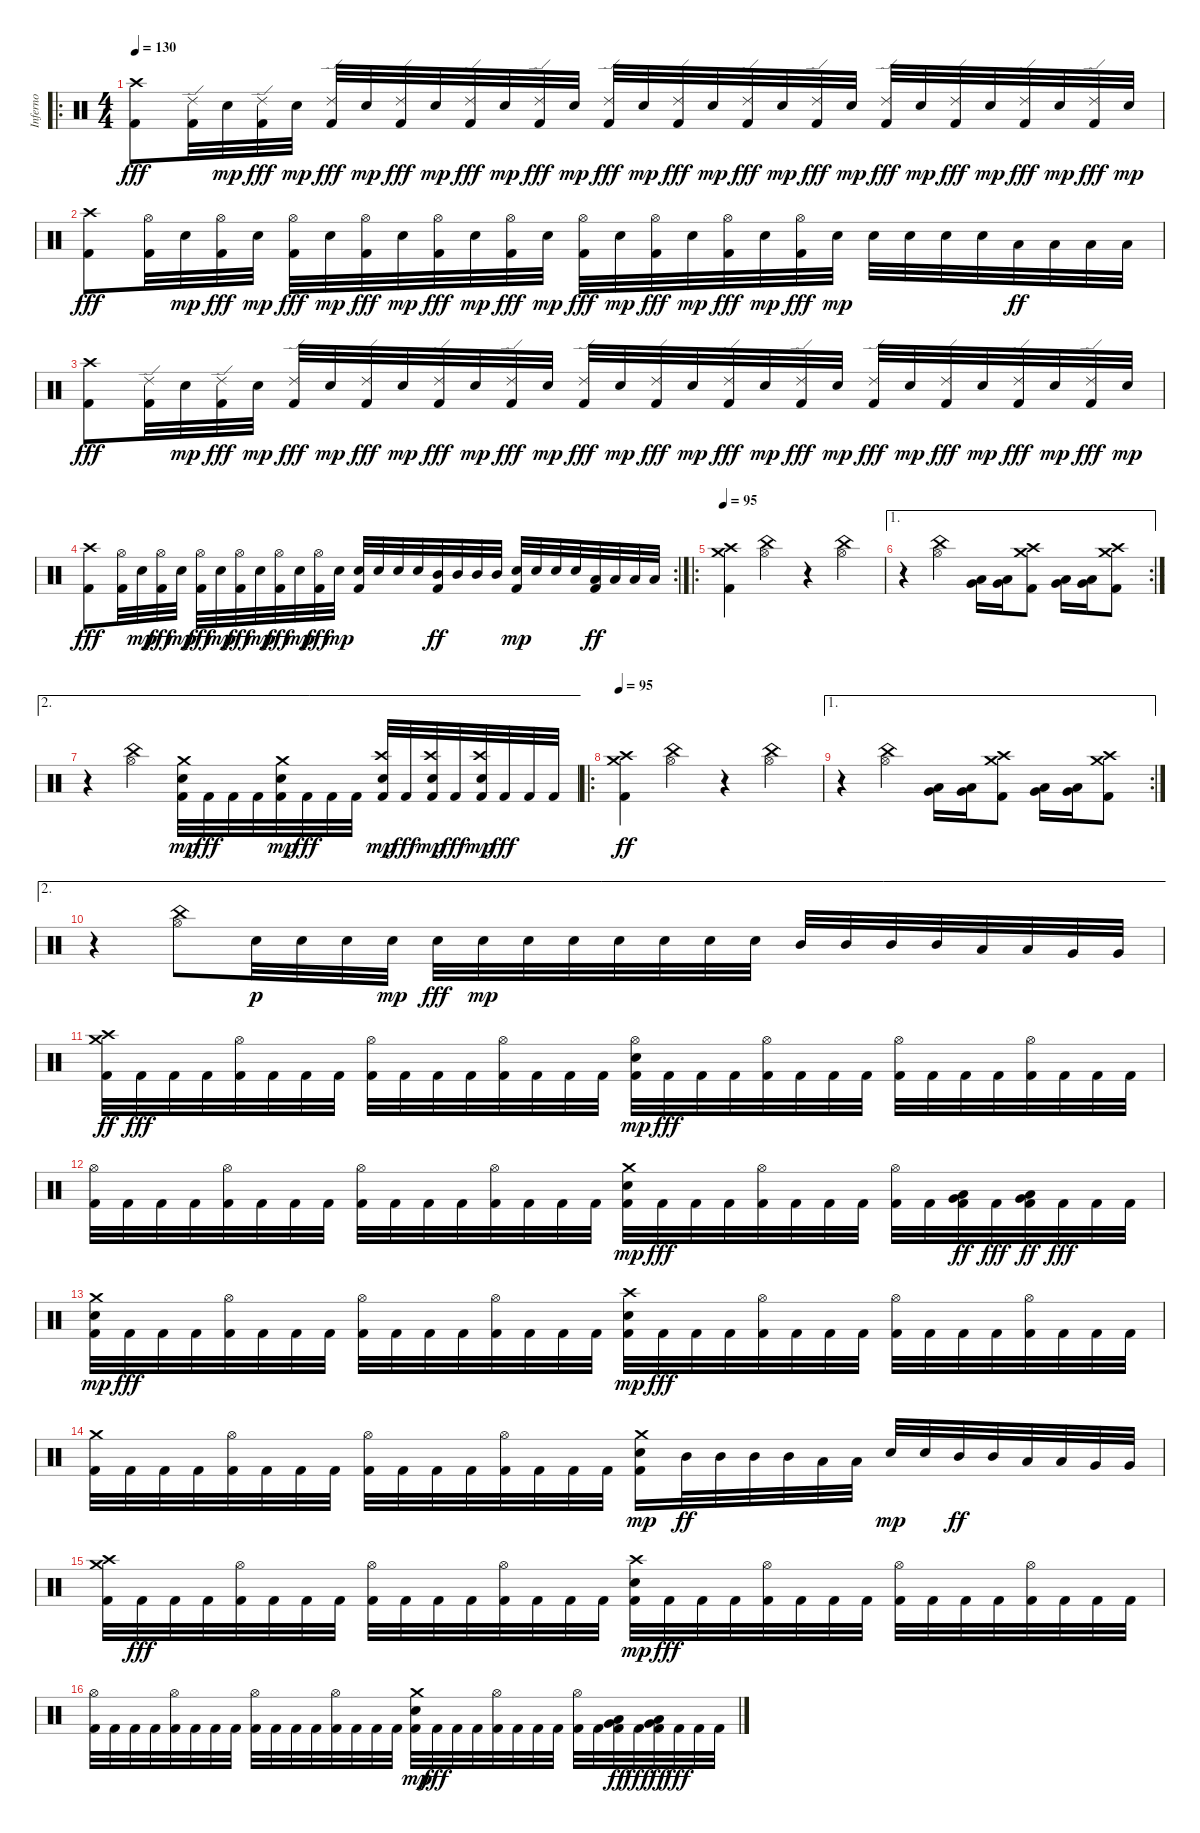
\track ("Inferno" "Inferno") {instrument percussion}
\staff {score}
\articulation defaults
\ro
\ts (4 4)
\tempo 130
\clef neutral
\ks c
("Kick (hit) 2" "Crash high (hit)").8{dy fff} ("Kick (hit) 2" "Ride (edge) 2").32 "Electric Snare (hit)".32{dy mp} ("Kick (hit) 2" "Ride (edge) 2").32{dy fff} "Electric Snare (hit)".32{dy mp} ("Kick (hit) 2" "Ride (edge) 2").32{dy fff} "Electric Snare (hit)".32{dy mp} ("Kick (hit) 2" "Ride (edge) 2").32{dy fff} "Electric Snare (hit)".32{dy mp} ("Kick (hit) 2" "Ride (edge) 2").32{dy fff} "Electric Snare (hit)".32{dy mp} ("Kick (hit) 2" "Ride (edge) 2").32{dy fff} "Electric Snare (hit)".32{dy mp} ("Kick (hit) 2" "Ride (edge) 2").32{dy fff} "Electric Snare (hit)".32{dy mp} ("Kick (hit) 2" "Ride (edge) 2").32{dy fff} "Electric Snare (hit)".32{dy mp} ("Kick (hit) 2" "Ride (edge) 2").32{dy fff} "Electric Snare (hit)".32{dy mp} ("Kick (hit) 2" "Ride (edge) 2").32{dy fff} "Electric Snare (hit)".32{dy mp} ("Kick (hit) 2" "Ride (edge) 2").32{dy fff} "Electric Snare (hit)".32{dy mp} ("Kick (hit) 2" "Ride (edge) 2").32{dy fff} "Electric Snare (hit)".32{dy mp} ("Kick (hit) 2" "Ride (edge) 2").32{dy fff} "Electric Snare (hit)".32{dy mp} ("Kick (hit) 2" "Ride (edge) 2").32{dy fff} "Electric Snare (hit)".32{dy mp} |
("Kick (hit) 2" "Crash high (hit)").8{dy fff} ("Kick (hit) 2" "Hi-Hat (open)").32 "Electric Snare (hit)".32{dy mp} ("Kick (hit) 2" "Hi-Hat (open)").32{dy fff} "Electric Snare (hit)".32{dy mp} ("Kick (hit) 2" "Hi-Hat (open)").32{dy fff} "Electric Snare (hit)".32{dy mp} ("Kick (hit) 2" "Hi-Hat (open)").32{dy fff} "Electric Snare (hit)".32{dy mp} ("Kick (hit) 2" "Hi-Hat (open)").32{dy fff} "Electric Snare (hit)".32{dy mp} ("Kick (hit) 2" "Hi-Hat (open)").32{dy fff} "Electric Snare (hit)".32{dy mp} ("Kick (hit) 2" "Hi-Hat (open)").32{dy fff} "Electric Snare (hit)".32{dy mp} ("Kick (hit) 2" "Hi-Hat (open)").32{dy fff} "Electric Snare (hit)".32{dy mp} ("Kick (hit) 2" "Hi-Hat (open)").32{dy fff} "Electric Snare (hit)".32{dy mp} ("Kick (hit) 2" "Hi-Hat (open)").32{dy fff} "Electric Snare (hit)".32{dy mp} "Electric Snare (hit)".32 "Electric Snare (hit)".32 "Electric Snare (hit)".32 "Electric Snare (hit)".32 "Low Tom (hit)".32{dy ff} "Low Tom (hit)".32 "Low Tom (hit)".32 "Low Tom (hit)".32 |
("Kick (hit) 2" "Crash high (hit)").8{dy fff} ("Kick (hit) 2" "Ride (edge) 2").32 "Electric Snare (hit)".32{dy mp} ("Kick (hit) 2" "Ride (edge) 2").32{dy fff} "Electric Snare (hit)".32{dy mp} ("Kick (hit) 2" "Ride (edge) 2").32{dy fff} "Electric Snare (hit)".32{dy mp} ("Kick (hit) 2" "Ride (edge) 2").32{dy fff} "Electric Snare (hit)".32{dy mp} ("Kick (hit) 2" "Ride (edge) 2").32{dy fff} "Electric Snare (hit)".32{dy mp} ("Kick (hit) 2" "Ride (edge) 2").32{dy fff} "Electric Snare (hit)".32{dy mp} ("Kick (hit) 2" "Ride (edge) 2").32{dy fff} "Electric Snare (hit)".32{dy mp} ("Kick (hit) 2" "Ride (edge) 2").32{dy fff} "Electric Snare (hit)".32{dy mp} ("Kick (hit) 2" "Ride (edge) 2").32{dy fff} "Electric Snare (hit)".32{dy mp} ("Kick (hit) 2" "Ride (edge) 2").32{dy fff} "Electric Snare (hit)".32{dy mp} ("Kick (hit) 2" "Ride (edge) 2").32{dy fff} "Electric Snare (hit)".32{dy mp} ("Kick (hit) 2" "Ride (edge) 2").32{dy fff} "Electric Snare (hit)".32{dy mp} ("Kick (hit) 2" "Ride (edge) 2").32{dy fff} "Electric Snare (hit)".32{dy mp} ("Kick (hit) 2" "Ride (edge) 2").32{dy fff} "Electric Snare (hit)".32{dy mp} |
\rc 2
("Kick (hit) 2" "Crash high (hit)").8{dy fff} ("Kick (hit) 2" "Hi-Hat (open)").32 "Electric Snare (hit)".32{dy mp} ("Kick (hit) 2" "Hi-Hat (open)").32{dy fff} "Electric Snare (hit)".32{dy mp} ("Kick (hit) 2" "Hi-Hat (open)").32{dy fff} "Electric Snare (hit)".32{dy mp} ("Kick (hit) 2" "Hi-Hat (open)").32{dy fff} "Electric Snare (hit)".32{dy mp} ("Kick (hit) 2" "Hi-Hat (open)").32{dy fff} "Electric Snare (hit)".32{dy mp} ("Kick (hit) 2" "Hi-Hat (open)").32{dy fff} "Electric Snare (hit)".32{dy mp} ("Kick (hit) 2" "Electric Snare (hit)").32 "Electric Snare (hit)".32 "Electric Snare (hit)".32 "Electric Snare (hit)".32 ("Kick (hit) 2" "Mid Tom (hit)").32{dy ff} "Mid Tom (hit)".32 "Mid Tom (hit)".32 "Mid Tom (hit)".32 ("Kick (hit) 2" "Electric Snare (hit)").32{dy mp} "Electric Snare (hit)".32 "Electric Snare (hit)".32 "Electric Snare (hit)".32 ("Kick (hit) 2" "Low Tom (hit)").32{dy ff} "Low Tom (hit)".32 "Low Tom (hit)".32 "Low Tom (hit)".32 |
\ro
\tempo 95
("Kick (hit) 2" "Crash medium (hit)" "Crash high (hit)").4 ("Hi-Hat (open)" "China (hit)").4 r.4 ("Hi-Hat (open)" "China (hit)").4 |
\ae 1
\rc 2
r.4 ("Hi-Hat (open)" "China (hit)").4 ("Low Tom (hit)" "Very Low Tom (hit)").16 ("Low Tom (hit)" "Very Low Tom (hit)").16 ("Kick (hit) 2" "Crash medium (hit)" "Crash high (hit)").8 ("Low Tom (hit)" "Very Low Tom (hit)").16 ("Low Tom (hit)" "Very Low Tom (hit)").16 ("Kick (hit) 2" "Crash medium (hit)" "Crash high (hit)").8 |
\ae 2
r.4 ("Hi-Hat (open)" "China (hit)").4 ("Kick (hit) 2" "Crash medium (hit)" "Electric Snare (hit)").32{dy mp} "Kick (hit) 2".32{dy fff} "Kick (hit) 2".32 "Kick (hit) 2".32 ("Kick (hit) 2" "Crash medium (hit)" "Electric Snare (hit)").32{dy mp} "Kick (hit) 2".32{dy fff} "Kick (hit) 2".32 "Kick (hit) 2".32 ("Kick (hit) 2" "Crash high (hit)" "Electric Snare (hit)").32{dy mp} "Kick (hit) 2".32{dy fff} ("Kick (hit) 2" "Crash high (hit)" "Electric Snare (hit)").32{dy mp} "Kick (hit) 2".32{dy fff} ("Kick (hit) 2" "Crash high (hit)" "Electric Snare (hit)").32{dy mp} "Kick (hit) 2".32{dy fff} "Kick (hit) 2".32 "Kick (hit) 2".32 |
\ro
\tempo 95
("Kick (hit) 2" "Crash medium (hit)" "Crash high (hit)").4{dy ff} ("Hi-Hat (open)" "China (hit)").4 r.4 ("Hi-Hat (open)" "China (hit)").4 |
\ae 1
\rc 2
r.4 ("Hi-Hat (open)" "China (hit)").4 ("Low Tom (hit)" "Very Low Tom (hit)").16 ("Low Tom (hit)" "Very Low Tom (hit)").16 ("Kick (hit) 2" "Crash medium (hit)" "Crash high (hit)").8 ("Low Tom (hit)" "Very Low Tom (hit)").16 ("Low Tom (hit)" "Very Low Tom (hit)").16 ("Kick (hit) 2" "Crash medium (hit)" "Crash high (hit)").8 |
\ae 2
r.4 ("Hi-Hat (open)" "China (hit)").8 "Electric Snare (hit)".32{dy p} "Electric Snare (hit)".32 "Electric Snare (hit)".32 "Electric Snare (hit)".32{dy mp} "Electric Snare (hit)".32{dy fff} "Electric Snare (hit)".32{dy mp} "Electric Snare (hit)".32 "Electric Snare (hit)".32 "Electric Snare (hit)".32 "Electric Snare (hit)".32 "Electric Snare (hit)".32 "Electric Snare (hit)".32 "Mid Tom (hit)".32 "Mid Tom (hit)".32 "Mid Tom (hit)".32 "Mid Tom (hit)".32 "Low Tom (hit)".32 "Low Tom (hit)".32 "Very Low Tom (hit)".32 "Very Low Tom (hit)".32 |
("Kick (hit) 2" "Crash high (hit)" "Crash medium (hit)").32{dy ff} "Kick (hit) 2".32{dy fff} "Kick (hit) 2".32 "Kick (hit) 2".32 ("Kick (hit) 2" "Hi-Hat (open)").32 "Kick (hit) 2".32 "Kick (hit) 2".32 "Kick (hit) 2".32 ("Kick (hit) 2" "Hi-Hat (open)").32 "Kick (hit) 2".32 "Kick (hit) 2".32 "Kick (hit) 2".32 ("Kick (hit) 2" "Hi-Hat (open)").32 "Kick (hit) 2".32 "Kick (hit) 2".32 "Kick (hit) 2".32 ("Kick (hit) 2" "Hi-Hat (open)" "Electric Snare (hit)").32{dy mp} "Kick (hit) 2".32{dy fff} "Kick (hit) 2".32 "Kick (hit) 2".32 ("Kick (hit) 2" "Hi-Hat (open)").32 "Kick (hit) 2".32 "Kick (hit) 2".32 "Kick (hit) 2".32 ("Kick (hit) 2" "Hi-Hat (open)").32 "Kick (hit) 2".32 "Kick (hit) 2".32 "Kick (hit) 2".32 ("Kick (hit) 2" "Hi-Hat (open)").32 "Kick (hit) 2".32 "Kick (hit) 2".32 "Kick (hit) 2".32 |
("Kick (hit) 2" "Hi-Hat (open)").32 "Kick (hit) 2".32 "Kick (hit) 2".32 "Kick (hit) 2".32 ("Kick (hit) 2" "Hi-Hat (open)").32 "Kick (hit) 2".32 "Kick (hit) 2".32 "Kick (hit) 2".32 ("Kick (hit) 2" "Hi-Hat (open)").32 "Kick (hit) 2".32 "Kick (hit) 2".32 "Kick (hit) 2".32 ("Kick (hit) 2" "Hi-Hat (open)").32 "Kick (hit) 2".32 "Kick (hit) 2".32 "Kick (hit) 2".32 ("Kick (hit) 2" "Crash medium (hit)" "Electric Snare (hit)").32{dy mp} "Kick (hit) 2".32{dy fff} "Kick (hit) 2".32 "Kick (hit) 2".32 ("Kick (hit) 2" "Hi-Hat (open)").32 "Kick (hit) 2".32 "Kick (hit) 2".32 "Kick (hit) 2".32 ("Kick (hit) 2" "Hi-Hat (open)").32 "Kick (hit) 2".32 ("Kick (hit) 2" "Low Tom (hit)" "Very Low Tom (hit)").32{dy ff} "Kick (hit) 2".32{dy fff} ("Kick (hit) 2" "Low Tom (hit)" "Very Low Tom (hit)").32{dy ff} "Kick (hit) 2".32{dy fff} "Kick (hit) 2".32 "Kick (hit) 2".32 |
("Kick (hit) 2" "Crash medium (hit)" "Electric Snare (hit)").32{dy mp} "Kick (hit) 2".32{dy fff} "Kick (hit) 2".32 "Kick (hit) 2".32 ("Kick (hit) 2" "Hi-Hat (open)").32 "Kick (hit) 2".32 "Kick (hit) 2".32 "Kick (hit) 2".32 ("Kick (hit) 2" "Hi-Hat (open)").32 "Kick (hit) 2".32 "Kick (hit) 2".32 "Kick (hit) 2".32 ("Kick (hit) 2" "Hi-Hat (open)").32 "Kick (hit) 2".32 "Kick (hit) 2".32 "Kick (hit) 2".32 ("Kick (hit) 2" "Crash high (hit)" "Electric Snare (hit)").32{dy mp} "Kick (hit) 2".32{dy fff} "Kick (hit) 2".32 "Kick (hit) 2".32 ("Kick (hit) 2" "Hi-Hat (open)").32 "Kick (hit) 2".32 "Kick (hit) 2".32 "Kick (hit) 2".32 ("Kick (hit) 2" "Hi-Hat (open)").32 "Kick (hit) 2".32 "Kick (hit) 2".32 "Kick (hit) 2".32 ("Kick (hit) 2" "Hi-Hat (open)").32 "Kick (hit) 2".32 "Kick (hit) 2".32 "Kick (hit) 2".32 |
("Kick (hit) 2" "Crash medium (hit)").32 "Kick (hit) 2".32 "Kick (hit) 2".32 "Kick (hit) 2".32 ("Kick (hit) 2" "Hi-Hat (open)").32 "Kick (hit) 2".32 "Kick (hit) 2".32 "Kick (hit) 2".32 ("Kick (hit) 2" "Hi-Hat (open)").32 "Kick (hit) 2".32 "Kick (hit) 2".32 "Kick (hit) 2".32 ("Kick (hit) 2" "Hi-Hat (open)").32 "Kick (hit) 2".32 "Kick (hit) 2".32 "Kick (hit) 2".32 ("Kick (hit) 2" "Crash medium (hit)" "Electric Snare (hit)").16{dy mp} "Mid Tom (hit)".32{dy ff} "Mid Tom (hit)".32 "Mid Tom (hit)".32 "Mid Tom (hit)".32 "Low Tom (hit)".32 "Low Tom (hit)".32 "Electric Snare (hit)".32{dy mp} "Electric Snare (hit)".32 "Mid Tom (hit)".32{dy ff} "Mid Tom (hit)".32 "Low Tom (hit)".32 "Low Tom (hit)".32 "Very Low Tom (hit)".32 "Very Low Tom (hit)".32 |
("Kick (hit) 2" "Crash high (hit)" "Crash medium (hit)").32 "Kick (hit) 2".32{dy fff} "Kick (hit) 2".32 "Kick (hit) 2".32 ("Kick (hit) 2" "Hi-Hat (open)").32 "Kick (hit) 2".32 "Kick (hit) 2".32 "Kick (hit) 2".32 ("Kick (hit) 2" "Hi-Hat (open)").32 "Kick (hit) 2".32 "Kick (hit) 2".32 "Kick (hit) 2".32 ("Kick (hit) 2" "Hi-Hat (open)").32 "Kick (hit) 2".32 "Kick (hit) 2".32 "Kick (hit) 2".32 ("Kick (hit) 2" "Crash high (hit)" "Electric Snare (hit)").32{dy mp} "Kick (hit) 2".32{dy fff} "Kick (hit) 2".32 "Kick (hit) 2".32 ("Kick (hit) 2" "Hi-Hat (open)").32 "Kick (hit) 2".32 "Kick (hit) 2".32 "Kick (hit) 2".32 ("Kick (hit) 2" "Hi-Hat (open)").32 "Kick (hit) 2".32 "Kick (hit) 2".32 "Kick (hit) 2".32 ("Kick (hit) 2" "Hi-Hat (open)").32 "Kick (hit) 2".32 "Kick (hit) 2".32 "Kick (hit) 2".32 |
("Kick (hit) 2" "Hi-Hat (open)").32 "Kick (hit) 2".32 "Kick (hit) 2".32 "Kick (hit) 2".32 ("Kick (hit) 2" "Hi-Hat (open)").32 "Kick (hit) 2".32 "Kick (hit) 2".32 "Kick (hit) 2".32 ("Kick (hit) 2" "Hi-Hat (open)").32 "Kick (hit) 2".32 "Kick (hit) 2".32 "Kick (hit) 2".32 ("Kick (hit) 2" "Hi-Hat (open)").32 "Kick (hit) 2".32 "Kick (hit) 2".32 "Kick (hit) 2".32 ("Kick (hit) 2" "Crash medium (hit)" "Electric Snare (hit)").32{dy mp} "Kick (hit) 2".32{dy fff} "Kick (hit) 2".32 "Kick (hit) 2".32 ("Kick (hit) 2" "Hi-Hat (open)").32 "Kick (hit) 2".32 "Kick (hit) 2".32 "Kick (hit) 2".32 ("Kick (hit) 2" "Hi-Hat (open)").32 "Kick (hit) 2".32 ("Kick (hit) 2" "Low Tom (hit)" "Very Low Tom (hit)").32{dy ff} "Kick (hit) 2".32{dy fff} ("Kick (hit) 2" "Low Tom (hit)" "Very Low Tom (hit)").32{dy ff} "Kick (hit) 2".32{dy fff} "Kick (hit) 2".32 "Kick (hit) 2".32
